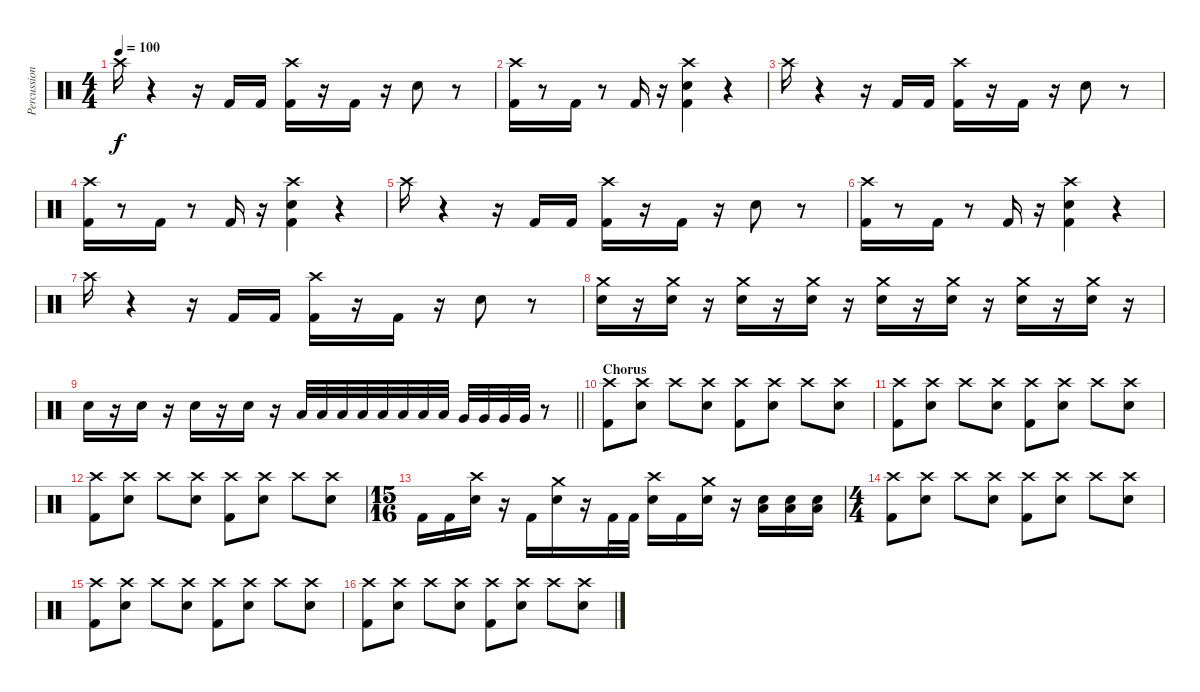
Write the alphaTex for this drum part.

\track ("Percussion" "Percussion") {instrument percussion}
\staff {score}
\articulation defaults
\ts (4 4)
\tempo 100
\clef neutral
\ks c "Crash high (hit)".16{dy f}
r.4 r.16 "Kick (hit) 2".16 "Kick (hit) 2".16 ("Crash high (hit)" "Kick (hit) 2").16 r.16 "Kick (hit) 2".16 r.16 "Electric Snare (hit)".8 r.8 |
("Crash high (hit)" "Kick (hit) 2").16 r.8 "Kick (hit) 2".16 r.8 "Kick (hit) 2".16 r.16 ("Crash high (hit)" "Electric Snare (hit)" "Kick (hit) 2").4 r.4 |
"Crash high (hit)".16 r.4 r.16 "Kick (hit) 2".16 "Kick (hit) 2".16 ("Crash high (hit)" "Kick (hit) 2").16 r.16 "Kick (hit) 2".16 r.16 "Electric Snare (hit)".8 r.8 |
("Crash high (hit)" "Kick (hit) 2").16 r.8 "Kick (hit) 2".16 r.8 "Kick (hit) 2".16 r.16 ("Crash high (hit)" "Electric Snare (hit)" "Kick (hit) 2").4 r.4 |
"Crash high (hit)".16 r.4 r.16 "Kick (hit) 2".16 "Kick (hit) 2".16 ("Crash high (hit)" "Kick (hit) 2").16 r.16 "Kick (hit) 2".16 r.16 "Electric Snare (hit)".8 r.8 |
("Crash high (hit)" "Kick (hit) 2").16 r.8 "Kick (hit) 2".16 r.8 "Kick (hit) 2".16 r.16 ("Crash high (hit)" "Electric Snare (hit)" "Kick (hit) 2").4 r.4 |
"Crash high (hit)".16 r.4 r.16 "Kick (hit) 2".16 "Kick (hit) 2".16 ("Crash high (hit)" "Kick (hit) 2").16 r.16 "Kick (hit) 2".16 r.16 "Electric Snare (hit)".8 r.8 |
("Crash medium (hit)" "Electric Snare (hit)").16 r.16 ("Crash medium (hit)" "Electric Snare (hit)").16 r.16 ("Crash medium (hit)" "Electric Snare (hit)").16 r.16 ("Crash medium (hit)" "Electric Snare (hit)").16 r.16 ("Crash medium (hit)" "Electric Snare (hit)").16 r.16 ("Crash medium (hit)" "Electric Snare (hit)").16 r.16 ("Crash medium (hit)" "Electric Snare (hit)").16 r.16 ("Crash medium (hit)" "Electric Snare (hit)").16 r.16 |
\barLineRight lightlight "Electric Snare (hit)".16
r.16 "Electric Snare (hit)".16 r.16 "Electric Snare (hit)".16 r.16 "Electric Snare (hit)".16 r.16 "Low Tom (hit)".32 "Low Tom (hit)".32 "Low Tom (hit)".32 "Low Tom (hit)".32 "Low Tom (hit)".32 "Low Tom (hit)".32 "Low Tom (hit)".32 "Low Tom (hit)".32 "Very Low Tom (hit)".32 "Very Low Tom (hit)".32 "Very Low Tom (hit)".32 "Very Low Tom (hit)".32 r.8 |
\section ("" "Chorus")
("Crash high (hit)" "Kick (hit) 2").8 ("Crash high (hit)" "Electric Snare (hit)").8 "Crash high (hit)".8 ("Crash high (hit)" "Electric Snare (hit)").8 ("Crash high (hit)" "Kick (hit) 2").8 ("Crash high (hit)" "Electric Snare (hit)").8 "Crash high (hit)".8 ("Crash high (hit)" "Electric Snare (hit)").8 |
("Crash high (hit)" "Kick (hit) 2").8 ("Crash high (hit)" "Electric Snare (hit)").8 "Crash high (hit)".8 ("Crash high (hit)" "Electric Snare (hit)").8 ("Crash high (hit)" "Kick (hit) 2").8 ("Crash high (hit)" "Electric Snare (hit)").8 "Crash high (hit)".8 ("Crash high (hit)" "Electric Snare (hit)").8 |
("Crash high (hit)" "Kick (hit) 2").8 ("Crash high (hit)" "Electric Snare (hit)").8 "Crash high (hit)".8 ("Crash high (hit)" "Electric Snare (hit)").8 ("Crash high (hit)" "Kick (hit) 2").8 ("Crash high (hit)" "Electric Snare (hit)").8 "Crash high (hit)".8 ("Crash high (hit)" "Electric Snare (hit)").8 |
\ts (15 16)
"Kick (hit) 2".16 "Kick (hit) 2".16 ("Crash high (hit)" "Electric Snare (hit)").16 r.16 "Kick (hit) 2".16 ("Crash medium (hit)" "Electric Snare (hit)").16 r.16 "Kick (hit) 2".32 "Kick (hit) 2".32 ("Crash high (hit)" "Electric Snare (hit)").16 "Kick (hit) 2".16 ("Crash medium (hit)" "Electric Snare (hit)").16 r.16 ("Electric Snare (hit)" "Low Floor Tom (hit)").16 ("Electric Snare (hit)" "Low Floor Tom (hit)").16 ("Electric Snare (hit)" "Low Floor Tom (hit)").16 |
\ts (4 4)
("Crash high (hit)" "Kick (hit) 2").8 ("Crash high (hit)" "Electric Snare (hit)").8 "Crash high (hit)".8 ("Crash high (hit)" "Electric Snare (hit)").8 ("Crash high (hit)" "Kick (hit) 2").8 ("Crash high (hit)" "Electric Snare (hit)").8 "Crash high (hit)".8 ("Crash high (hit)" "Electric Snare (hit)").8 |
("Crash high (hit)" "Kick (hit) 2").8 ("Crash high (hit)" "Electric Snare (hit)").8 "Crash high (hit)".8 ("Crash high (hit)" "Electric Snare (hit)").8 ("Crash high (hit)" "Kick (hit) 2").8 ("Crash high (hit)" "Electric Snare (hit)").8 "Crash high (hit)".8 ("Crash high (hit)" "Electric Snare (hit)").8 |
("Crash high (hit)" "Kick (hit) 2").8 ("Crash high (hit)" "Electric Snare (hit)").8 "Crash high (hit)".8 ("Crash high (hit)" "Electric Snare (hit)").8 ("Crash high (hit)" "Kick (hit) 2").8 ("Crash high (hit)" "Electric Snare (hit)").8 "Crash high (hit)".8 ("Crash high (hit)" "Electric Snare (hit)").8
